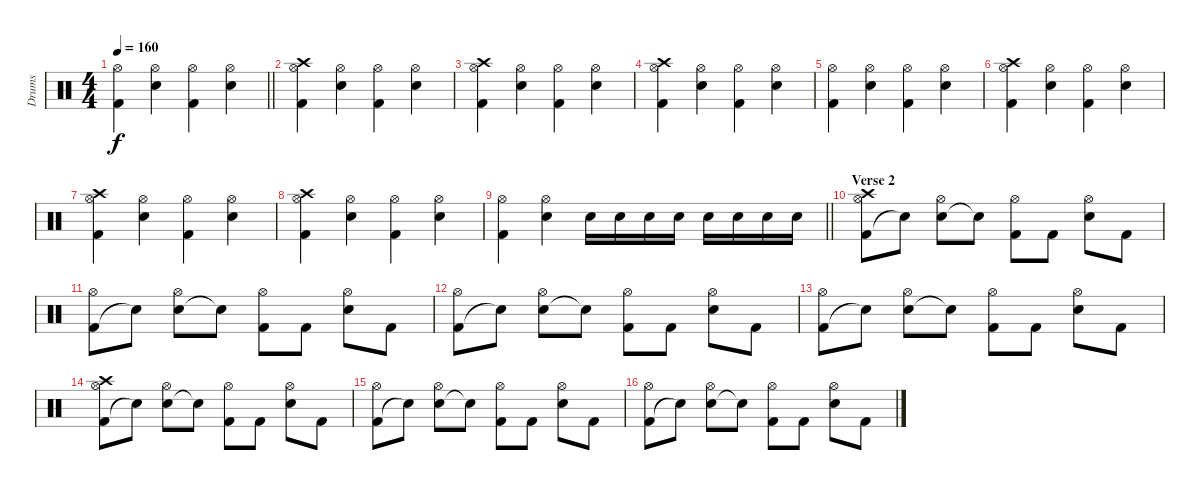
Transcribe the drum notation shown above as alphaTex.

\track ("Drums" "Drums") {instrument percussion}
\staff {score}
\articulation defaults
\ts (4 4)
\tempo 160
\clef neutral
\barLineRight lightlight
\ks c
("Kick (hit) 2" "Hi-Hat (open)").4{dy f} ("Snare (hit) 2" "Hi-Hat (open)").4 ("Kick (hit) 2" "Hi-Hat (open)").4 ("Snare (hit) 2" "Hi-Hat (open)").4 |
("Kick (hit) 2" "Hi-Hat (open)" "Crash high (hit)").4 ("Snare (hit) 2" "Hi-Hat (open)").4 ("Kick (hit) 2" "Hi-Hat (open)").4 ("Snare (hit) 2" "Hi-Hat (open)").4 |
("Kick (hit) 2" "Hi-Hat (open)" "Crash high (hit)").4 ("Snare (hit) 2" "Hi-Hat (open)").4 ("Kick (hit) 2" "Hi-Hat (open)").4 ("Snare (hit) 2" "Hi-Hat (open)").4 |
("Kick (hit) 2" "Hi-Hat (open)" "Crash high (hit)").4 ("Snare (hit) 2" "Hi-Hat (open)").4 ("Kick (hit) 2" "Hi-Hat (open)").4 ("Snare (hit) 2" "Hi-Hat (open)").4 |
("Kick (hit) 2" "Hi-Hat (open)").4 ("Snare (hit) 2" "Hi-Hat (open)").4 ("Kick (hit) 2" "Hi-Hat (open)").4 ("Snare (hit) 2" "Hi-Hat (open)").4 |
("Kick (hit) 2" "Hi-Hat (open)" "Crash high (hit)").4 ("Snare (hit) 2" "Hi-Hat (open)").4 ("Kick (hit) 2" "Hi-Hat (open)").4 ("Snare (hit) 2" "Hi-Hat (open)").4 |
("Kick (hit) 2" "Hi-Hat (open)" "Crash high (hit)").4 ("Snare (hit) 2" "Hi-Hat (open)").4 ("Kick (hit) 2" "Hi-Hat (open)").4 ("Snare (hit) 2" "Hi-Hat (open)").4 |
("Kick (hit) 2" "Hi-Hat (open)" "Crash high (hit)").4 ("Snare (hit) 2" "Hi-Hat (open)").4 ("Kick (hit) 2" "Hi-Hat (open)").4 ("Snare (hit) 2" "Hi-Hat (open)").4 |
\barLineRight lightlight
("Kick (hit) 2" "Hi-Hat (open)").4 ("Snare (hit) 2" "Hi-Hat (open)").4 "Snare (hit) 2".16 "Snare (hit) 2".16 "Snare (hit) 2".16 "Snare (hit) 2".16 "Snare (hit) 2".16 "Snare (hit) 2".16 "Snare (hit) 2".16 "Snare (hit) 2".16 |
\section ("" "Verse 2")
("Kick (hit) 2" "Hi-Hat (open)" "Crash high (hit)").8 "Snare (hit)"{t}.8 ("Snare (hit) 2" "Hi-Hat (open)").8 "Snare (hit)"{t}.8 ("Kick (hit) 2" "Hi-Hat (open)").8 "Kick (hit) 2".8 ("Snare (hit) 2" "Hi-Hat (open)").8 "Kick (hit) 2".8 |
("Kick (hit) 2" "Hi-Hat (open)").8 "Snare (hit)"{t}.8 ("Snare (hit) 2" "Hi-Hat (open)").8 "Snare (hit)"{t}.8 ("Kick (hit) 2" "Hi-Hat (open)").8 "Kick (hit) 2".8 ("Snare (hit) 2" "Hi-Hat (open)").8 "Kick (hit) 2".8 |
("Kick (hit) 2" "Hi-Hat (open)").8 "Snare (hit)"{t}.8 ("Snare (hit) 2" "Hi-Hat (open)").8 "Snare (hit)"{t}.8 ("Kick (hit) 2" "Hi-Hat (open)").8 "Kick (hit) 2".8 ("Snare (hit) 2" "Hi-Hat (open)").8 "Kick (hit) 2".8 |
("Kick (hit) 2" "Hi-Hat (open)").8 "Snare (hit)"{t}.8 ("Snare (hit) 2" "Hi-Hat (open)").8 "Snare (hit)"{t}.8 ("Kick (hit) 2" "Hi-Hat (open)").8 "Kick (hit) 2".8 ("Snare (hit) 2" "Hi-Hat (open)").8 "Kick (hit) 2".8 |
("Kick (hit) 2" "Hi-Hat (open)" "Crash high (hit)").8 "Snare (hit)"{t}.8 ("Snare (hit) 2" "Hi-Hat (open)").8 "Snare (hit)"{t}.8 ("Kick (hit) 2" "Hi-Hat (open)").8 "Kick (hit) 2".8 ("Snare (hit) 2" "Hi-Hat (open)").8 "Kick (hit) 2".8 |
("Kick (hit) 2" "Hi-Hat (open)").8 "Snare (hit)"{t}.8 ("Snare (hit) 2" "Hi-Hat (open)").8 "Snare (hit)"{t}.8 ("Kick (hit) 2" "Hi-Hat (open)").8 "Kick (hit) 2".8 ("Snare (hit) 2" "Hi-Hat (open)").8 "Kick (hit) 2".8 |
("Kick (hit) 2" "Hi-Hat (open)").8 "Snare (hit)"{t}.8 ("Snare (hit) 2" "Hi-Hat (open)").8 "Snare (hit)"{t}.8 ("Kick (hit) 2" "Hi-Hat (open)").8 "Kick (hit) 2".8 ("Snare (hit) 2" "Hi-Hat (open)").8 "Kick (hit) 2".8
